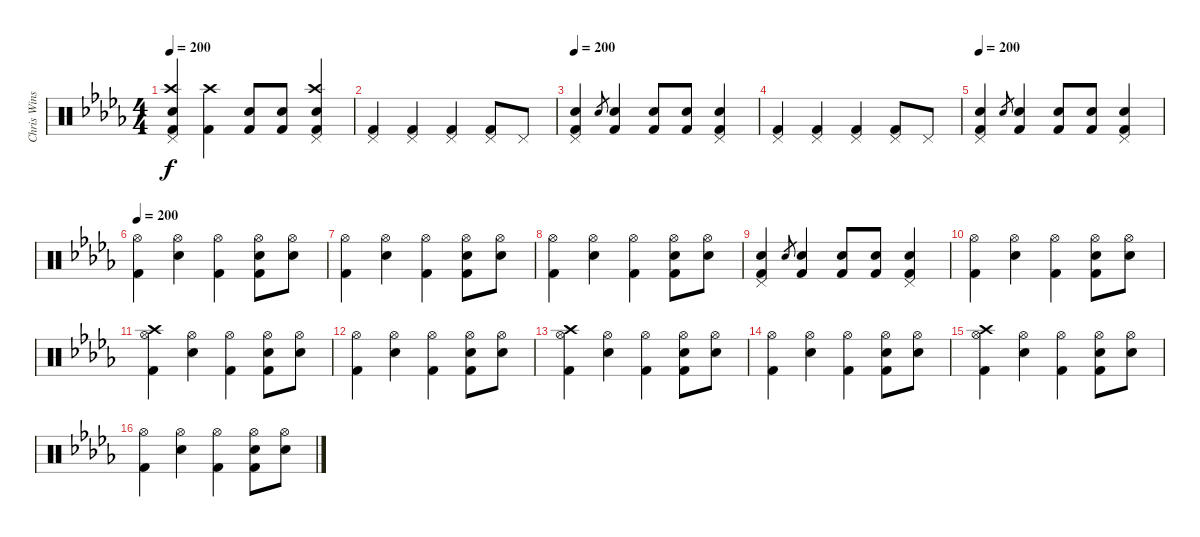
\track ("Chris Winship (Drums)" "Chris Wins") {instrument percussion}
\staff {score}
\articulation defaults
\ts (4 4)
\tempo 200
\clef neutral
\ks bbminor
("Electric Snare (hit)" "Crash high (hit)" "Pedal Hi-Hat (hit)" "Kick (hit) 2").4{dy f} ("Crash high (hit)" "Kick (hit) 2").4 ("Snare (hit) 2" "Kick (hit) 2").8 ("Snare (hit) 2" "Kick (hit) 2").8 ("Electric Snare (hit)" "Crash high (hit)" "Pedal Hi-Hat (hit)" "Kick (hit) 2").4 |
("Pedal Hi-Hat (hit)" "Kick (hit) 2").4 ("Pedal Hi-Hat (hit)" "Kick (hit) 2").4 ("Pedal Hi-Hat (hit)" "Kick (hit) 2").4 ("Pedal Hi-Hat (hit)" "Kick (hit) 2").8 "Pedal Hi-Hat (hit)".8 |
\tempo 200
("Electric Snare (hit)" "Pedal Hi-Hat (hit)" "Kick (hit) 2").4 "Snare (hit) 2".8{gr} ("Electric Snare (hit)" "Kick (hit) 2").4 ("Snare (hit) 2" "Kick (hit) 2").8 ("Snare (hit) 2" "Kick (hit) 2").8 ("Electric Snare (hit)" "Pedal Hi-Hat (hit)" "Kick (hit) 2").4 |
("Pedal Hi-Hat (hit)" "Kick (hit) 2").4 ("Pedal Hi-Hat (hit)" "Kick (hit) 2").4 ("Pedal Hi-Hat (hit)" "Kick (hit) 2").4 ("Pedal Hi-Hat (hit)" "Kick (hit) 2").8 "Pedal Hi-Hat (hit)".8 |
\tempo 200
("Electric Snare (hit)" "Pedal Hi-Hat (hit)" "Kick (hit) 2").4 "Snare (hit) 2".8{gr} ("Electric Snare (hit)" "Kick (hit) 2").4 ("Snare (hit) 2" "Kick (hit) 2").8 ("Snare (hit) 2" "Kick (hit) 2").8 ("Electric Snare (hit)" "Pedal Hi-Hat (hit)" "Kick (hit) 2").4 |
\tempo 200
("Hi-Hat (open)" "Kick (hit) 2").4 ("Hi-Hat (open)" "Electric Snare (hit)").4 ("Hi-Hat (open)" "Kick (hit) 2").4 ("Hi-Hat (open)" "Electric Snare (hit)" "Kick (hit) 2").8 ("Hi-Hat (open)" "Electric Snare (hit)").8 |
("Hi-Hat (open)" "Kick (hit) 2").4 ("Hi-Hat (open)" "Electric Snare (hit)").4 ("Hi-Hat (open)" "Kick (hit) 2").4 ("Hi-Hat (open)" "Electric Snare (hit)" "Kick (hit) 2").8 ("Hi-Hat (open)" "Electric Snare (hit)").8 |
("Hi-Hat (open)" "Kick (hit) 2").4 ("Hi-Hat (open)" "Electric Snare (hit)").4 ("Hi-Hat (open)" "Kick (hit) 2").4 ("Hi-Hat (open)" "Electric Snare (hit)" "Kick (hit) 2").8 ("Hi-Hat (open)" "Electric Snare (hit)").8 |
("Electric Snare (hit)" "Pedal Hi-Hat (hit)" "Kick (hit) 2").4 "Snare (hit) 2".8{gr} ("Electric Snare (hit)" "Kick (hit) 2").4 ("Snare (hit) 2" "Kick (hit) 2").8 ("Snare (hit) 2" "Kick (hit) 2").8 ("Electric Snare (hit)" "Pedal Hi-Hat (hit)" "Kick (hit) 2").4 |
("Hi-Hat (open)" "Kick (hit) 2").4 ("Hi-Hat (open)" "Electric Snare (hit)").4 ("Hi-Hat (open)" "Kick (hit) 2").4 ("Hi-Hat (open)" "Electric Snare (hit)" "Kick (hit) 2").8 ("Hi-Hat (open)" "Electric Snare (hit)").8 |
("Crash high (hit)" "Hi-Hat (open)" "Kick (hit) 2").4 ("Hi-Hat (open)" "Electric Snare (hit)").4 ("Hi-Hat (open)" "Kick (hit) 2").4 ("Hi-Hat (open)" "Electric Snare (hit)" "Kick (hit) 2").8 ("Hi-Hat (open)" "Electric Snare (hit)").8 |
("Hi-Hat (open)" "Kick (hit) 2").4 ("Hi-Hat (open)" "Electric Snare (hit)").4 ("Hi-Hat (open)" "Kick (hit) 2").4 ("Hi-Hat (open)" "Electric Snare (hit)" "Kick (hit) 2").8 ("Hi-Hat (open)" "Electric Snare (hit)").8 |
("Crash high (hit)" "Hi-Hat (open)" "Kick (hit) 2").4 ("Hi-Hat (open)" "Electric Snare (hit)").4 ("Hi-Hat (open)" "Kick (hit) 2").4 ("Hi-Hat (open)" "Electric Snare (hit)" "Kick (hit) 2").8 ("Hi-Hat (open)" "Electric Snare (hit)").8 |
("Hi-Hat (open)" "Kick (hit) 2").4 ("Hi-Hat (open)" "Electric Snare (hit)").4 ("Hi-Hat (open)" "Kick (hit) 2").4 ("Hi-Hat (open)" "Electric Snare (hit)" "Kick (hit) 2").8 ("Hi-Hat (open)" "Electric Snare (hit)").8 |
("Crash high (hit)" "Hi-Hat (open)" "Kick (hit) 2").4 ("Hi-Hat (open)" "Electric Snare (hit)").4 ("Hi-Hat (open)" "Kick (hit) 2").4 ("Hi-Hat (open)" "Electric Snare (hit)" "Kick (hit) 2").8 ("Hi-Hat (open)" "Electric Snare (hit)").8 |
("Hi-Hat (open)" "Kick (hit) 2").4 ("Hi-Hat (open)" "Electric Snare (hit)").4 ("Hi-Hat (open)" "Kick (hit) 2").4 ("Hi-Hat (open)" "Electric Snare (hit)" "Kick (hit) 2").8 ("Hi-Hat (open)" "Electric Snare (hit)").8
